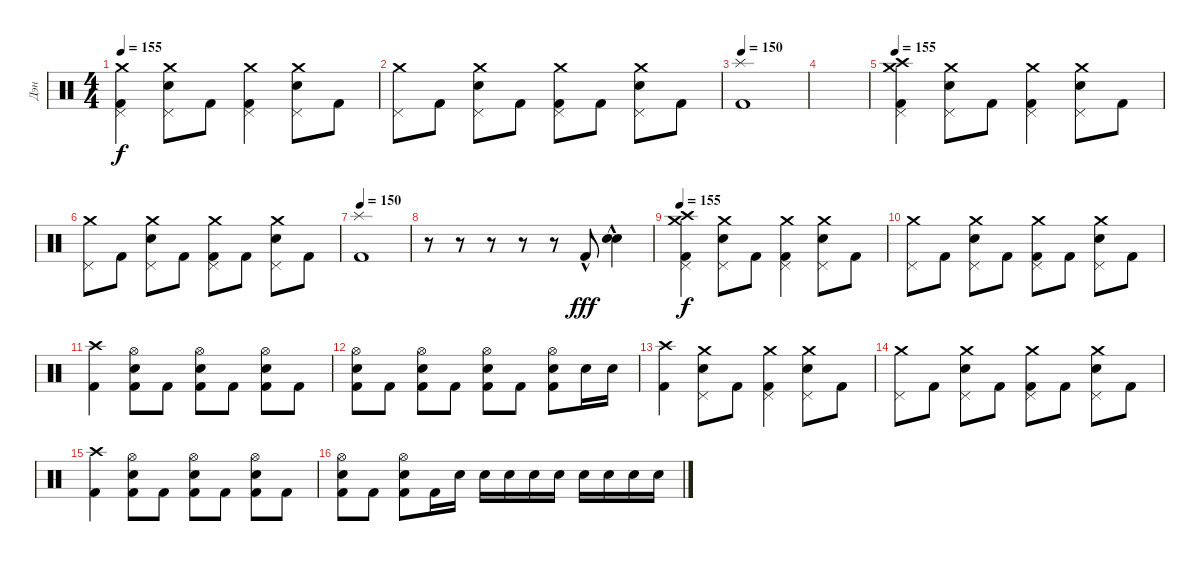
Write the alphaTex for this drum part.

\track ("Дэн" "Дэн") {instrument percussion}
\staff {score}
\articulation defaults
\ts (4 4)
\tempo 155
\clef neutral
\ks c
("Crash medium (hit)" "Pedal Hi-Hat (hit)" "Kick (hit) 2").4{dy f} ("Crash medium (hit)" "Pedal Hi-Hat (hit)" "Snare (hit) 2").8 "Kick (hit) 2".8 ("Crash medium (hit)" "Pedal Hi-Hat (hit)" "Kick (hit) 2").4 ("Crash medium (hit)" "Pedal Hi-Hat (hit)" "Snare (hit) 2").8 "Kick (hit) 2".8 |
("Crash medium (hit)" "Pedal Hi-Hat (hit)").8 "Kick (hit) 2".8 ("Crash medium (hit)" "Pedal Hi-Hat (hit)" "Snare (hit) 2").8 "Kick (hit) 2".8 ("Crash medium (hit)" "Pedal Hi-Hat (hit)" "Kick (hit) 2").8 "Kick (hit) 2".8 ("Crash medium (hit)" "Pedal Hi-Hat (hit)" "Snare (hit) 2").8 "Kick (hit) 2".8 |
\tempo 150
("Splash (hit)" "Kick (hit) 2").1 |
|
\tempo 155
("Crash high (hit)" "Crash medium (hit)" "Pedal Hi-Hat (hit)" "Kick (hit) 2").4 ("Crash medium (hit)" "Pedal Hi-Hat (hit)" "Snare (hit) 2").8 "Kick (hit) 2".8 ("Crash medium (hit)" "Pedal Hi-Hat (hit)" "Kick (hit) 2").4 ("Crash medium (hit)" "Pedal Hi-Hat (hit)" "Snare (hit) 2").8 "Kick (hit) 2".8 |
("Crash medium (hit)" "Pedal Hi-Hat (hit)").8 "Kick (hit) 2".8 ("Crash medium (hit)" "Pedal Hi-Hat (hit)" "Snare (hit) 2").8 "Kick (hit) 2".8 ("Crash medium (hit)" "Pedal Hi-Hat (hit)" "Kick (hit) 2").8 "Kick (hit) 2".8 ("Crash medium (hit)" "Pedal Hi-Hat (hit)" "Snare (hit) 2").8 "Kick (hit) 2".8 |
\tempo 150
("Splash (hit)" "Kick (hit) 2").1 |
r.8 r.8 r.8 r.8 r.8 "Kick (hit) 2"{hac}.8{dy fff} ("Snare (hit) 2"{hac} "Snare (hit) 2"{hac}).4 |
\tempo 155
("Crash high (hit)" "Crash medium (hit)" "Pedal Hi-Hat (hit)" "Kick (hit) 2").4{dy f} ("Crash medium (hit)" "Pedal Hi-Hat (hit)" "Snare (hit) 2").8 "Kick (hit) 2".8 ("Crash medium (hit)" "Pedal Hi-Hat (hit)" "Kick (hit) 2").4 ("Crash medium (hit)" "Pedal Hi-Hat (hit)" "Snare (hit) 2").8 "Kick (hit) 2".8 |
("Crash medium (hit)" "Pedal Hi-Hat (hit)").8 "Kick (hit) 2".8 ("Crash medium (hit)" "Pedal Hi-Hat (hit)" "Snare (hit) 2").8 "Kick (hit) 2".8 ("Crash medium (hit)" "Pedal Hi-Hat (hit)" "Kick (hit) 2").8 "Kick (hit) 2".8 ("Crash medium (hit)" "Pedal Hi-Hat (hit)" "Snare (hit) 2").8 "Kick (hit) 2".8 |
("Crash high (hit)" "Kick (hit) 2").4 ("Hi-Hat (open)" "Kick (hit) 2" "Snare (hit) 2").8 "Kick (hit) 2".8 ("Hi-Hat (open)" "Kick (hit) 2" "Snare (hit) 2").8 "Kick (hit) 2".8 ("Hi-Hat (open)" "Kick (hit) 2" "Snare (hit) 2").8 "Kick (hit) 2".8 |
("Hi-Hat (open)" "Kick (hit) 2" "Snare (hit) 2").8 "Kick (hit) 2".8 ("Hi-Hat (open)" "Kick (hit) 2" "Snare (hit) 2").8 "Kick (hit) 2".8 ("Hi-Hat (open)" "Kick (hit) 2" "Snare (hit) 2").8 "Kick (hit) 2".8 ("Hi-Hat (open)" "Kick (hit) 2" "Snare (hit) 2").8 "Snare (hit) 2".16 "Snare (hit) 2".16 |
("Crash high (hit)" "Kick (hit) 2").4 ("Crash medium (hit)" "Pedal Hi-Hat (hit)" "Snare (hit) 2").8 "Kick (hit) 2".8 ("Crash medium (hit)" "Pedal Hi-Hat (hit)" "Kick (hit) 2").4 ("Crash medium (hit)" "Pedal Hi-Hat (hit)" "Snare (hit) 2").8 "Kick (hit) 2".8 |
("Crash medium (hit)" "Pedal Hi-Hat (hit)").8 "Kick (hit) 2".8 ("Crash medium (hit)" "Pedal Hi-Hat (hit)" "Snare (hit) 2").8 "Kick (hit) 2".8 ("Crash medium (hit)" "Pedal Hi-Hat (hit)" "Kick (hit) 2").8 "Kick (hit) 2".8 ("Crash medium (hit)" "Pedal Hi-Hat (hit)" "Snare (hit) 2").8 "Kick (hit) 2".8 |
("Crash high (hit)" "Kick (hit) 2").4 ("Hi-Hat (open)" "Kick (hit) 2" "Snare (hit) 2").8 "Kick (hit) 2".8 ("Hi-Hat (open)" "Kick (hit) 2" "Snare (hit) 2").8 "Kick (hit) 2".8 ("Hi-Hat (open)" "Kick (hit) 2" "Snare (hit) 2").8 "Kick (hit) 2".8 |
("Hi-Hat (open)" "Kick (hit) 2" "Snare (hit) 2").8 "Kick (hit) 2".8 ("Hi-Hat (open)" "Kick (hit) 2" "Snare (hit) 2").8 "Kick (hit) 2".16 "Snare (hit) 2".16 "Snare (hit) 2".16 "Snare (hit) 2".16 "Snare (hit) 2".16 "Snare (hit) 2".16 "Snare (hit) 2".16 "Snare (hit) 2".16 "Snare (hit) 2".16 "Snare (hit) 2".16
